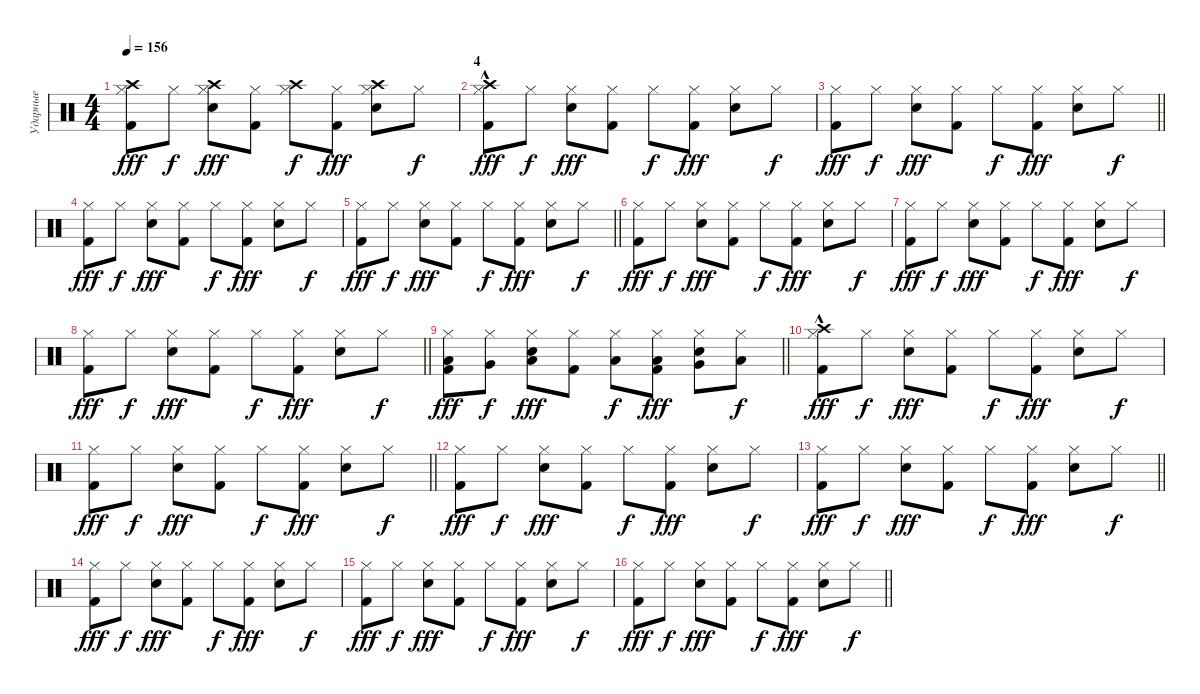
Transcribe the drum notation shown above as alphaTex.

\track ("Ударные" "Ударные") {instrument percussion}
\staff {score}
\articulation defaults
\ts (4 4)
\tempo 156
\clef neutral
\ks c
("Hi-Hat (closed)" "Kick (hit) 2" "Crash high (hit)").8{dy fff} "Hi-Hat (closed)".8{dy f} ("Hi-Hat (closed)" "Snare (hit) 2" "Crash high (hit)").8{dy fff} ("Hi-Hat (closed)" "Kick (hit) 2").8 ("Hi-Hat (closed)" "Crash high (hit)").8{dy f} ("Hi-Hat (closed)" "Kick (hit) 2").8{dy fff} ("Hi-Hat (closed)" "Snare (hit) 2" "Crash high (hit)").8 "Hi-Hat (closed)".8{dy f} |
\section ("" "4")
("Hi-Hat (closed)" "Kick (hit) 2" "Crash high (hit)"{hac}).8{dy fff} "Hi-Hat (closed)".8{dy f} ("Hi-Hat (closed)" "Snare (hit) 2").8{dy fff} ("Hi-Hat (closed)" "Kick (hit) 2").8 "Hi-Hat (closed)".8{dy f} ("Hi-Hat (closed)" "Kick (hit) 2").8{dy fff} ("Hi-Hat (closed)" "Snare (hit) 2").8 "Hi-Hat (closed)".8{dy f} |
\barLineRight lightlight
("Hi-Hat (closed)" "Kick (hit) 2").8{dy fff} "Hi-Hat (closed)".8{dy f} ("Hi-Hat (closed)" "Snare (hit) 2").8{dy fff} ("Hi-Hat (closed)" "Kick (hit) 2").8 "Hi-Hat (closed)".8{dy f} ("Hi-Hat (closed)" "Kick (hit) 2").8{dy fff} ("Hi-Hat (closed)" "Snare (hit) 2").8 "Hi-Hat (closed)".8{dy f} |
("Hi-Hat (closed)" "Kick (hit) 2").8{dy fff} "Hi-Hat (closed)".8{dy f} ("Hi-Hat (closed)" "Snare (hit) 2").8{dy fff} ("Hi-Hat (closed)" "Kick (hit) 2").8 "Hi-Hat (closed)".8{dy f} ("Hi-Hat (closed)" "Kick (hit) 2").8{dy fff} ("Hi-Hat (closed)" "Snare (hit) 2").8 "Hi-Hat (closed)".8{dy f} |
\barLineRight lightlight
("Hi-Hat (closed)" "Kick (hit) 2").8{dy fff} "Hi-Hat (closed)".8{dy f} ("Hi-Hat (closed)" "Snare (hit) 2").8{dy fff} ("Hi-Hat (closed)" "Kick (hit) 2").8 "Hi-Hat (closed)".8{dy f} ("Hi-Hat (closed)" "Kick (hit) 2").8{dy fff} ("Hi-Hat (closed)" "Snare (hit) 2").8 "Hi-Hat (closed)".8{dy f} |
("Hi-Hat (closed)" "Kick (hit) 2").8{dy fff} "Hi-Hat (closed)".8{dy f} ("Hi-Hat (closed)" "Snare (hit) 2").8{dy fff} ("Hi-Hat (closed)" "Kick (hit) 2").8 "Hi-Hat (closed)".8{dy f} ("Hi-Hat (closed)" "Kick (hit) 2").8{dy fff} ("Hi-Hat (closed)" "Snare (hit) 2").8 "Hi-Hat (closed)".8{dy f} |
("Hi-Hat (closed)" "Kick (hit) 2").8{dy fff} "Hi-Hat (closed)".8{dy f} ("Hi-Hat (closed)" "Snare (hit) 2").8{dy fff} ("Hi-Hat (closed)" "Kick (hit) 2").8 "Hi-Hat (closed)".8{dy f} ("Hi-Hat (closed)" "Kick (hit) 2").8{dy fff} ("Hi-Hat (closed)" "Snare (hit) 2").8 "Hi-Hat (closed)".8{dy f} |
\barLineRight lightlight
("Hi-Hat (closed)" "Kick (hit) 2").8{dy fff} "Hi-Hat (closed)".8{dy f} ("Hi-Hat (closed)" "Snare (hit) 2").8{dy fff} ("Hi-Hat (closed)" "Kick (hit) 2").8 "Hi-Hat (closed)".8{dy f} ("Hi-Hat (closed)" "Kick (hit) 2").8{dy fff} ("Hi-Hat (closed)" "Snare (hit) 2").8 "Hi-Hat (closed)".8{dy f} |
\barLineRight lightlight
("Hi-Hat (closed)" "Kick (hit) 2" "Low Floor Tom (hit)").8{dy fff} ("Hi-Hat (closed)" "Very Low Tom (hit)").8{dy f} ("Hi-Hat (closed)" "Snare (hit) 2" "Low Tom (hit)").8{dy fff} ("Hi-Hat (closed)" "Kick (hit) 2").8 ("Hi-Hat (closed)" "Low Floor Tom (hit)").8{dy f} ("Hi-Hat (closed)" "Kick (hit) 2" "Low Floor Tom (hit)").8{dy fff} ("Hi-Hat (closed)" "Snare (hit) 2" "Very Low Tom (hit)").8 ("Hi-Hat (closed)" "Low Tom (hit)").8{dy f} |
("Hi-Hat (closed)" "Kick (hit) 2" "Crash high (hit)"{hac}).8{dy fff} "Hi-Hat (closed)".8{dy f} ("Hi-Hat (closed)" "Snare (hit) 2").8{dy fff} ("Hi-Hat (closed)" "Kick (hit) 2").8 "Hi-Hat (closed)".8{dy f} ("Hi-Hat (closed)" "Kick (hit) 2").8{dy fff} ("Hi-Hat (closed)" "Snare (hit) 2").8 "Hi-Hat (closed)".8{dy f} |
\barLineRight lightlight
("Hi-Hat (closed)" "Kick (hit) 2").8{dy fff} "Hi-Hat (closed)".8{dy f} ("Hi-Hat (closed)" "Snare (hit) 2").8{dy fff} ("Hi-Hat (closed)" "Kick (hit) 2").8 "Hi-Hat (closed)".8{dy f} ("Hi-Hat (closed)" "Kick (hit) 2").8{dy fff} ("Hi-Hat (closed)" "Snare (hit) 2").8 "Hi-Hat (closed)".8{dy f} |
("Hi-Hat (closed)" "Kick (hit) 2").8{dy fff} "Hi-Hat (closed)".8{dy f} ("Hi-Hat (closed)" "Snare (hit) 2").8{dy fff} ("Hi-Hat (closed)" "Kick (hit) 2").8 "Hi-Hat (closed)".8{dy f} ("Hi-Hat (closed)" "Kick (hit) 2").8{dy fff} ("Hi-Hat (closed)" "Snare (hit) 2").8 "Hi-Hat (closed)".8{dy f} |
\barLineRight lightlight
("Hi-Hat (closed)" "Kick (hit) 2").8{dy fff} "Hi-Hat (closed)".8{dy f} ("Hi-Hat (closed)" "Snare (hit) 2").8{dy fff} ("Hi-Hat (closed)" "Kick (hit) 2").8 "Hi-Hat (closed)".8{dy f} ("Hi-Hat (closed)" "Kick (hit) 2").8{dy fff} ("Hi-Hat (closed)" "Snare (hit) 2").8 "Hi-Hat (closed)".8{dy f} |
("Hi-Hat (closed)" "Kick (hit) 2").8{dy fff} "Hi-Hat (closed)".8{dy f} ("Hi-Hat (closed)" "Snare (hit) 2").8{dy fff} ("Hi-Hat (closed)" "Kick (hit) 2").8 "Hi-Hat (closed)".8{dy f} ("Hi-Hat (closed)" "Kick (hit) 2").8{dy fff} ("Hi-Hat (closed)" "Snare (hit) 2").8 "Hi-Hat (closed)".8{dy f} |
("Hi-Hat (closed)" "Kick (hit) 2").8{dy fff} "Hi-Hat (closed)".8{dy f} ("Hi-Hat (closed)" "Snare (hit) 2").8{dy fff} ("Hi-Hat (closed)" "Kick (hit) 2").8 "Hi-Hat (closed)".8{dy f} ("Hi-Hat (closed)" "Kick (hit) 2").8{dy fff} ("Hi-Hat (closed)" "Snare (hit) 2").8 "Hi-Hat (closed)".8{dy f} |
\barLineRight lightlight
("Hi-Hat (closed)" "Kick (hit) 2").8{dy fff} "Hi-Hat (closed)".8{dy f} ("Hi-Hat (closed)" "Snare (hit) 2").8{dy fff} ("Hi-Hat (closed)" "Kick (hit) 2").8 "Hi-Hat (closed)".8{dy f} ("Hi-Hat (closed)" "Kick (hit) 2").8{dy fff} ("Hi-Hat (closed)" "Snare (hit) 2").8 "Hi-Hat (closed)".8{dy f}
